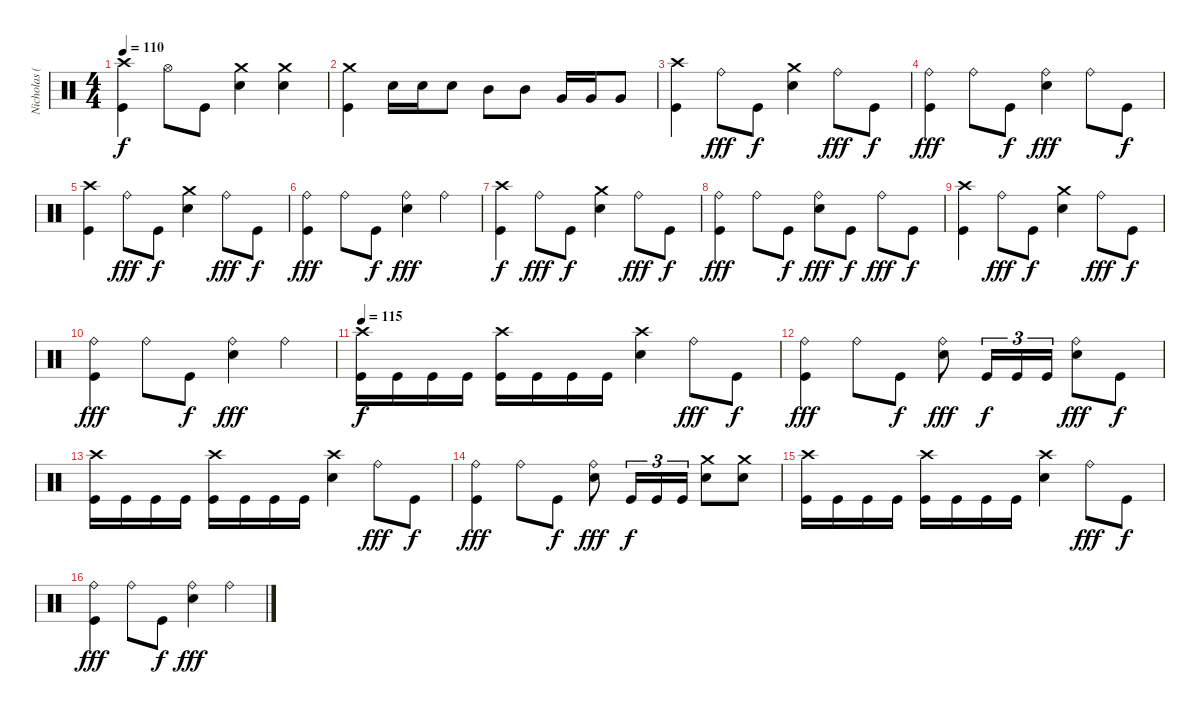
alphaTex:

\track ("Nicholas (Drums)" "Nicholas (") {instrument percussion}
\staff {score}
\articulation defaults
\ts (4 4)
\tempo 110
\clef neutral
\ks c
("Crash high (hit)" "Kick (hit)").4{dy f} "Hi-Hat (open)".8 "Kick (hit)".8 ("Crash medium (hit)" "Electric Snare (hit)").4 ("Crash medium (hit)" "Electric Snare (hit)").4 |
("Crash medium (hit)" "Kick (hit)").4 "Electric Snare (hit)".16 "Electric Snare (hit)".16 "Electric Snare (hit)".8 "Mid Tom (hit)".8 "Mid Tom (hit)".8 "Very Low Tom (hit)".16 "Very Low Tom (hit)".16 "Very Low Tom (hit)".8 |
("Crash high (hit)" "Kick (hit)").4 "Ride (bell)".8{dy fff} "Kick (hit)".8{dy f} ("Crash medium (hit)" "Electric Snare (hit)").4 "Ride (bell)".8{dy fff} "Kick (hit)".8{dy f} |
("Ride (bell)" "Kick (hit)").4{dy fff} "Ride (bell)".8 "Kick (hit)".8{dy f} ("Ride (bell)" "Electric Snare (hit)").4{dy fff} "Ride (bell)".8 "Kick (hit)".8{dy f} |
("Crash high (hit)" "Kick (hit)").4 "Ride (bell)".8{dy fff} "Kick (hit)".8{dy f} ("Crash medium (hit)" "Electric Snare (hit)").4 "Ride (bell)".8{dy fff} "Kick (hit)".8{dy f} |
("Ride (bell)" "Kick (hit)").4{dy fff} "Ride (bell)".8 "Kick (hit)".8{dy f} ("Ride (bell)" "Electric Snare (hit)").4{dy fff} "Ride (bell)".4 |
("Crash high (hit)" "Kick (hit)").4{dy f} "Ride (bell)".8{dy fff} "Kick (hit)".8{dy f} ("Crash medium (hit)" "Electric Snare (hit)").4 "Ride (bell)".8{dy fff} "Kick (hit)".8{dy f} |
("Ride (bell)" "Kick (hit)").4{dy fff} "Ride (bell)".8 "Kick (hit)".8{dy f} ("Ride (bell)" "Electric Snare (hit)").8{dy fff} "Kick (hit)".8{dy f} "Ride (bell)".8{dy fff} "Kick (hit)".8{dy f} |
("Crash high (hit)" "Kick (hit)").4 "Ride (bell)".8{dy fff} "Kick (hit)".8{dy f} ("Crash medium (hit)" "Electric Snare (hit)").4 "Ride (bell)".8{dy fff} "Kick (hit)".8{dy f} |
("Ride (bell)" "Kick (hit)").4{dy fff} "Ride (bell)".8 "Kick (hit)".8{dy f} ("Ride (bell)" "Electric Snare (hit)").4{dy fff} "Ride (bell)".4 |
\tempo 115
("Crash high (hit)" "Kick (hit)").16{dy f} "Kick (hit)".16 "Kick (hit)".16 "Kick (hit)".16 ("Crash high (hit)" "Kick (hit)").16 "Kick (hit)".16 "Kick (hit)".16 "Kick (hit)".16 ("Crash high (hit)" "Electric Snare (hit)").4 "Ride (bell)".8{dy fff} "Kick (hit)".8{dy f} |
("Ride (bell)" "Kick (hit)").4{dy fff} "Ride (bell)".8 "Kick (hit)".8{dy f} ("Ride (bell)" "Electric Snare (hit)").8{dy fff} "Kick (hit)".16{tu (3 2) dy f} "Kick (hit)".16{tu (3 2)} "Kick (hit)".16{tu (3 2)} ("Ride (bell)" "Electric Snare (hit)").8{dy fff} "Kick (hit)".8{dy f} |
("Crash high (hit)" "Kick (hit)").16 "Kick (hit)".16 "Kick (hit)".16 "Kick (hit)".16 ("Crash high (hit)" "Kick (hit)").16 "Kick (hit)".16 "Kick (hit)".16 "Kick (hit)".16 ("Crash high (hit)" "Electric Snare (hit)").4 "Ride (bell)".8{dy fff} "Kick (hit)".8{dy f} |
("Ride (bell)" "Kick (hit)").4{dy fff} "Ride (bell)".8 "Kick (hit)".8{dy f} ("Ride (bell)" "Electric Snare (hit)").8{dy fff} "Kick (hit)".16{tu (3 2) dy f} "Kick (hit)".16{tu (3 2)} "Kick (hit)".16{tu (3 2)} ("Crash medium (hit)" "Electric Snare (hit)").8 ("Crash medium (hit)" "Electric Snare (hit)").8 |
("Crash high (hit)" "Kick (hit)").16 "Kick (hit)".16 "Kick (hit)".16 "Kick (hit)".16 ("Crash high (hit)" "Kick (hit)").16 "Kick (hit)".16 "Kick (hit)".16 "Kick (hit)".16 ("Crash high (hit)" "Electric Snare (hit)").4 "Ride (bell)".8{dy fff} "Kick (hit)".8{dy f} |
("Ride (bell)" "Kick (hit)").4{dy fff} "Ride (bell)".8 "Kick (hit)".8{dy f} ("Ride (bell)" "Electric Snare (hit)").4{dy fff} "Ride (bell)".4
